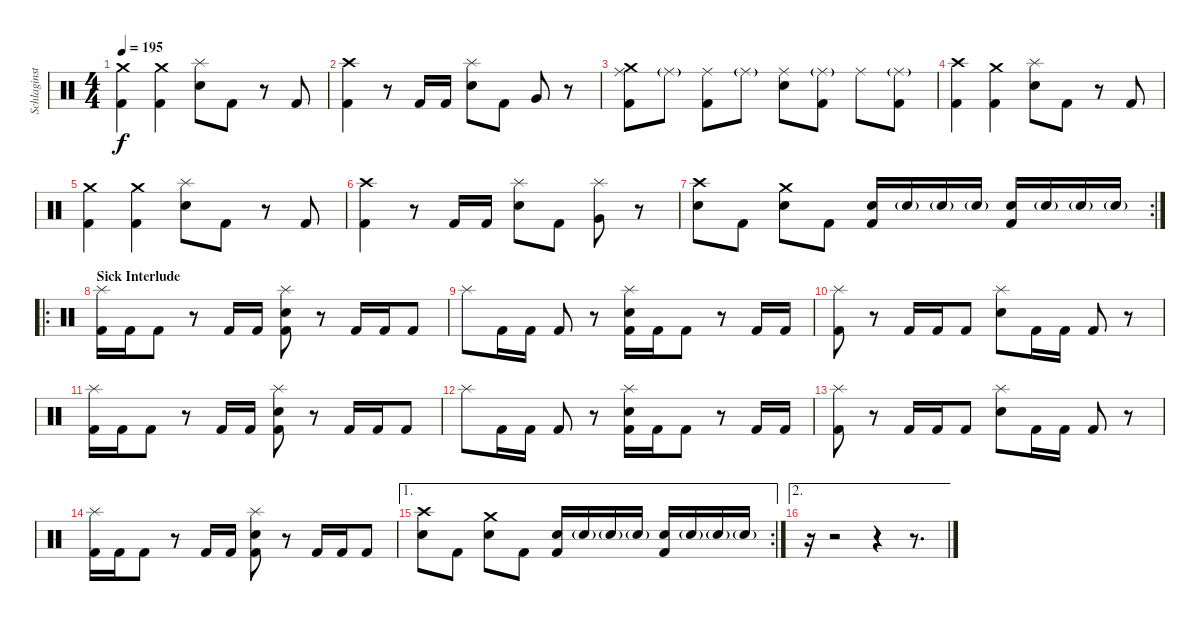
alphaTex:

\track ("Schlaginstrumente - Auswahl" "Schlaginst") {instrument percussion}
\staff {score}
\articulation defaults
\ts (4 4)
\tempo 195
\clef neutral
\ks c
("Crash medium (hit)" "Kick (hit) 2").4{dy f} ("Crash medium (hit)" "Kick (hit) 2").4 ("Snare (hit) 2" "Splash (hit)").8 "Kick (hit) 2".8 r.8 "Kick (hit) 2".8 |
("Crash high (hit)" "Kick (hit) 2").4 r.8 "Kick (hit) 2".16 "Kick (hit) 2".16 ("Snare (hit) 2" "Splash (hit)").8 "Kick (hit) 2".8 "Very Low Tom (hit)".8 r.8 |
("Crash medium (hit)" "Ride (middle)" "Kick (hit) 2").8 "Ride (middle)"{g}.8 ("Ride (middle)" "Kick (hit) 2").8 "Ride (middle)"{g}.8 ("Snare (hit) 2" "Ride (middle)").8 ("Ride (middle)"{g} "Kick (hit) 2").8 "Ride (middle)".8 ("Ride (middle)"{g} "Kick (hit) 2").8 |
("Crash high (hit)" "Kick (hit) 2").4 ("Crash medium (hit)" "Kick (hit) 2").4 ("Snare (hit) 2" "Splash (hit)").8 "Kick (hit) 2".8 r.8 "Kick (hit) 2".8 |
("Crash medium (hit)" "Kick (hit) 2").4 ("Crash medium (hit)" "Kick (hit) 2").4 ("Snare (hit) 2" "Splash (hit)").8 "Kick (hit) 2".8 r.8 "Kick (hit) 2".8 |
("Crash high (hit)" "Kick (hit) 2").4 r.8 "Kick (hit) 2".16 "Kick (hit) 2".16 ("Snare (hit) 2" "Splash (hit)").8 "Kick (hit) 2".8 ("Splash (hit)" "Very Low Tom (hit)").8 r.8 |
\rc 2
("Snare (hit) 2" "Crash high (hit)").8 "Kick (hit) 2".8 ("Snare (hit) 2" "Crash medium (hit)").8 "Kick (hit) 2".8 ("Snare (hit) 2" "Kick (hit) 2").16 "Snare (hit) 2"{g}.16 "Snare (hit) 2"{g}.16 "Snare (hit) 2"{g}.16 ("Snare (hit) 2" "Kick (hit) 2").16 "Snare (hit) 2"{g}.16 "Snare (hit) 2"{g}.16 "Snare (hit) 2"{g}.16 |
\ro
\section ("" "Sick Interlude")
("Splash (hit)" "Kick (hit) 2").16 "Kick (hit) 2".16 "Kick (hit) 2".8 r.8 "Kick (hit) 2".16 "Kick (hit) 2".16 ("Snare (hit) 2" "Splash (hit)" "Kick (hit) 2").8 r.8 "Kick (hit) 2".16 "Kick (hit) 2".16 "Kick (hit) 2".8 |
"Splash (hit)".8 "Kick (hit) 2".16 "Kick (hit) 2".16 "Kick (hit) 2".8 r.8 ("Snare (hit) 2" "Splash (hit)" "Kick (hit) 2").16 "Kick (hit) 2".16 "Kick (hit) 2".8 r.8 "Kick (hit) 2".16 "Kick (hit) 2".16 |
("Splash (hit)" "Kick (hit) 2").8 r.8 "Kick (hit) 2".16 "Kick (hit) 2".16 "Kick (hit) 2".8 ("Snare (hit) 2" "Splash (hit)").8 "Kick (hit) 2".16 "Kick (hit) 2".16 "Kick (hit) 2".8 r.8 |
("Splash (hit)" "Kick (hit) 2").16 "Kick (hit) 2".16 "Kick (hit) 2".8 r.8 "Kick (hit) 2".16 "Kick (hit) 2".16 ("Snare (hit) 2" "Splash (hit)" "Kick (hit) 2").8 r.8 "Kick (hit) 2".16 "Kick (hit) 2".16 "Kick (hit) 2".8 |
"Splash (hit)".8 "Kick (hit) 2".16 "Kick (hit) 2".16 "Kick (hit) 2".8 r.8 ("Snare (hit) 2" "Splash (hit)" "Kick (hit) 2").16 "Kick (hit) 2".16 "Kick (hit) 2".8 r.8 "Kick (hit) 2".16 "Kick (hit) 2".16 |
("Splash (hit)" "Kick (hit) 2").8 r.8 "Kick (hit) 2".16 "Kick (hit) 2".16 "Kick (hit) 2".8 ("Snare (hit) 2" "Splash (hit)").8 "Kick (hit) 2".16 "Kick (hit) 2".16 "Kick (hit) 2".8 r.8 |
("Splash (hit)" "Kick (hit) 2").16 "Kick (hit) 2".16 "Kick (hit) 2".8 r.8 "Kick (hit) 2".16 "Kick (hit) 2".16 ("Snare (hit) 2" "Splash (hit)" "Kick (hit) 2").8 r.8 "Kick (hit) 2".16 "Kick (hit) 2".16 "Kick (hit) 2".8 |
\ae 1
\rc 2
("Snare (hit) 2" "Crash high (hit)").8 "Kick (hit) 2".8 ("Snare (hit) 2" "Crash medium (hit)").8 "Kick (hit) 2".8 ("Snare (hit) 2" "Kick (hit) 2").16 "Snare (hit) 2"{g}.16 "Snare (hit) 2"{g}.16 "Snare (hit) 2"{g}.16 ("Snare (hit) 2" "Kick (hit) 2").16 "Snare (hit) 2"{g}.16 "Snare (hit) 2"{g}.16 "Snare (hit) 2"{g}.16 |
\ae 2
r.16 r.2 r.4 r.8{d}
